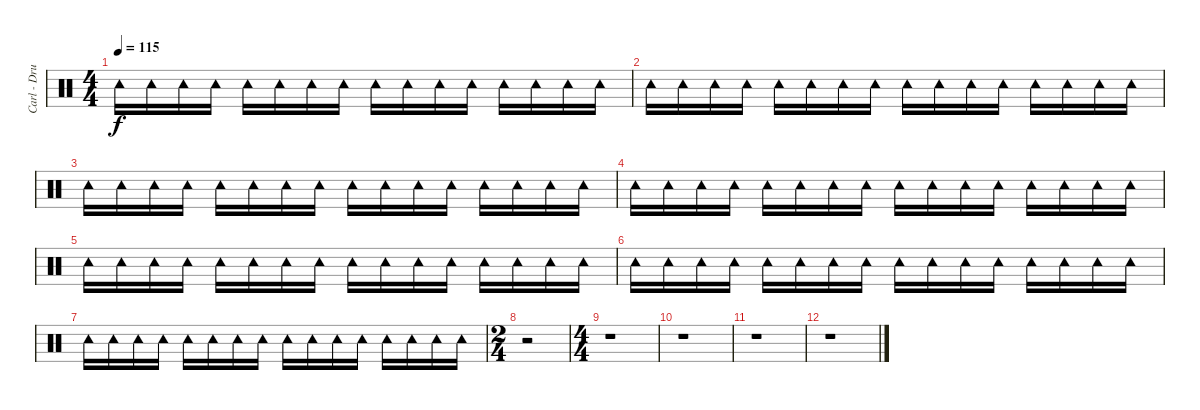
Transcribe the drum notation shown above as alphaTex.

\track ("Carl - Drums" "Carl - Dru") {instrument percussion}
\staff {score}
\articulation defaults
\ts (4 4)
\tempo 115
\clef neutral
\ks c "Tambourine (hit)".16{dy f} "Tambourine (hit)".16 "Tambourine (hit)".16 "Tambourine (hit)".16 "Tambourine (hit)".16 "Tambourine (hit)".16 "Tambourine (hit)".16 "Tambourine (hit)".16 "Tambourine (hit)".16 "Tambourine (hit)".16 "Tambourine (hit)".16 "Tambourine (hit)".16 "Tambourine (hit)".16 "Tambourine (hit)".16 "Tambourine (hit)".16 "Tambourine (hit)".16
|
"Tambourine (hit)".16 "Tambourine (hit)".16 "Tambourine (hit)".16 "Tambourine (hit)".16 "Tambourine (hit)".16 "Tambourine (hit)".16 "Tambourine (hit)".16 "Tambourine (hit)".16 "Tambourine (hit)".16 "Tambourine (hit)".16 "Tambourine (hit)".16 "Tambourine (hit)".16 "Tambourine (hit)".16 "Tambourine (hit)".16 "Tambourine (hit)".16 "Tambourine (hit)".16 |
"Tambourine (hit)".16 "Tambourine (hit)".16 "Tambourine (hit)".16 "Tambourine (hit)".16 "Tambourine (hit)".16 "Tambourine (hit)".16 "Tambourine (hit)".16 "Tambourine (hit)".16 "Tambourine (hit)".16 "Tambourine (hit)".16 "Tambourine (hit)".16 "Tambourine (hit)".16 "Tambourine (hit)".16 "Tambourine (hit)".16 "Tambourine (hit)".16 "Tambourine (hit)".16 |
"Tambourine (hit)".16 "Tambourine (hit)".16 "Tambourine (hit)".16 "Tambourine (hit)".16 "Tambourine (hit)".16 "Tambourine (hit)".16 "Tambourine (hit)".16 "Tambourine (hit)".16 "Tambourine (hit)".16 "Tambourine (hit)".16 "Tambourine (hit)".16 "Tambourine (hit)".16 "Tambourine (hit)".16 "Tambourine (hit)".16 "Tambourine (hit)".16 "Tambourine (hit)".16 |
"Tambourine (hit)".16 "Tambourine (hit)".16 "Tambourine (hit)".16 "Tambourine (hit)".16 "Tambourine (hit)".16 "Tambourine (hit)".16 "Tambourine (hit)".16 "Tambourine (hit)".16 "Tambourine (hit)".16 "Tambourine (hit)".16 "Tambourine (hit)".16 "Tambourine (hit)".16 "Tambourine (hit)".16 "Tambourine (hit)".16 "Tambourine (hit)".16 "Tambourine (hit)".16 |
"Tambourine (hit)".16 "Tambourine (hit)".16 "Tambourine (hit)".16 "Tambourine (hit)".16 "Tambourine (hit)".16 "Tambourine (hit)".16 "Tambourine (hit)".16 "Tambourine (hit)".16 "Tambourine (hit)".16 "Tambourine (hit)".16 "Tambourine (hit)".16 "Tambourine (hit)".16 "Tambourine (hit)".16 "Tambourine (hit)".16 "Tambourine (hit)".16 "Tambourine (hit)".16 |
"Tambourine (hit)".16 "Tambourine (hit)".16 "Tambourine (hit)".16 "Tambourine (hit)".16 "Tambourine (hit)".16 "Tambourine (hit)".16 "Tambourine (hit)".16 "Tambourine (hit)".16 "Tambourine (hit)".16 "Tambourine (hit)".16 "Tambourine (hit)".16 "Tambourine (hit)".16 "Tambourine (hit)".16 "Tambourine (hit)".16 "Tambourine (hit)".16 "Tambourine (hit)".16 |
\ts (2 4)
r.2 |
\ts (4 4)
r.1 |
r.1 |
r.1 |
r.1
